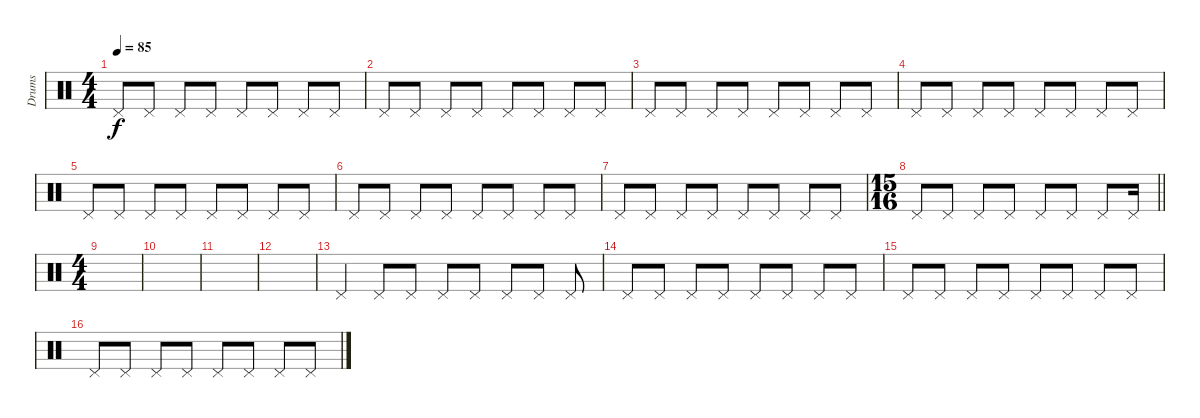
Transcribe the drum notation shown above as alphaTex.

\track ("Drums" "Drums") {solo instrument percussion}
\staff {score}
\articulation defaults
\ts (4 4)
\section ("" "")
\tempo 85
\clef neutral
\ks c "Pedal Hi-Hat (hit)".8{dy f} "Pedal Hi-Hat (hit)".8 "Pedal Hi-Hat (hit)".8 "Pedal Hi-Hat (hit)".8 "Pedal Hi-Hat (hit)".8 "Pedal Hi-Hat (hit)".8 "Pedal Hi-Hat (hit)".8 "Pedal Hi-Hat (hit)".8
|
"Pedal Hi-Hat (hit)".8 "Pedal Hi-Hat (hit)".8 "Pedal Hi-Hat (hit)".8 "Pedal Hi-Hat (hit)".8 "Pedal Hi-Hat (hit)".8 "Pedal Hi-Hat (hit)".8 "Pedal Hi-Hat (hit)".8 "Pedal Hi-Hat (hit)".8 |
"Pedal Hi-Hat (hit)".8 "Pedal Hi-Hat (hit)".8 "Pedal Hi-Hat (hit)".8 "Pedal Hi-Hat (hit)".8 "Pedal Hi-Hat (hit)".8 "Pedal Hi-Hat (hit)".8 "Pedal Hi-Hat (hit)".8 "Pedal Hi-Hat (hit)".8 |
"Pedal Hi-Hat (hit)".8 "Pedal Hi-Hat (hit)".8 "Pedal Hi-Hat (hit)".8 "Pedal Hi-Hat (hit)".8 "Pedal Hi-Hat (hit)".8 "Pedal Hi-Hat (hit)".8 "Pedal Hi-Hat (hit)".8 "Pedal Hi-Hat (hit)".8 |
"Pedal Hi-Hat (hit)".8 "Pedal Hi-Hat (hit)".8 "Pedal Hi-Hat (hit)".8 "Pedal Hi-Hat (hit)".8 "Pedal Hi-Hat (hit)".8 "Pedal Hi-Hat (hit)".8 "Pedal Hi-Hat (hit)".8 "Pedal Hi-Hat (hit)".8 |
"Pedal Hi-Hat (hit)".8 "Pedal Hi-Hat (hit)".8 "Pedal Hi-Hat (hit)".8 "Pedal Hi-Hat (hit)".8 "Pedal Hi-Hat (hit)".8 "Pedal Hi-Hat (hit)".8 "Pedal Hi-Hat (hit)".8 "Pedal Hi-Hat (hit)".8 |
"Pedal Hi-Hat (hit)".8 "Pedal Hi-Hat (hit)".8 "Pedal Hi-Hat (hit)".8 "Pedal Hi-Hat (hit)".8 "Pedal Hi-Hat (hit)".8 "Pedal Hi-Hat (hit)".8 "Pedal Hi-Hat (hit)".8 "Pedal Hi-Hat (hit)".8 |
\ts (15 16)
\barLineRight lightlight "Pedal Hi-Hat (hit)".8 "Pedal Hi-Hat (hit)".8 "Pedal Hi-Hat (hit)".8 "Pedal Hi-Hat (hit)".8 "Pedal Hi-Hat (hit)".8 "Pedal Hi-Hat (hit)".8 "Pedal Hi-Hat (hit)".8 "Pedal Hi-Hat (hit)".16
|
\ts (4 4)
\section ("" "")
|
|
|
|
"Pedal Hi-Hat (hit)".4 "Pedal Hi-Hat (hit)".8 "Pedal Hi-Hat (hit)".8 "Pedal Hi-Hat (hit)".8 "Pedal Hi-Hat (hit)".8 "Pedal Hi-Hat (hit)".8 "Pedal Hi-Hat (hit)".8 "Pedal Hi-Hat (hit)".8 |
"Pedal Hi-Hat (hit)".8 "Pedal Hi-Hat (hit)".8 "Pedal Hi-Hat (hit)".8 "Pedal Hi-Hat (hit)".8 "Pedal Hi-Hat (hit)".8 "Pedal Hi-Hat (hit)".8 "Pedal Hi-Hat (hit)".8 "Pedal Hi-Hat (hit)".8 |
"Pedal Hi-Hat (hit)".8 "Pedal Hi-Hat (hit)".8 "Pedal Hi-Hat (hit)".8 "Pedal Hi-Hat (hit)".8 "Pedal Hi-Hat (hit)".8 "Pedal Hi-Hat (hit)".8 "Pedal Hi-Hat (hit)".8 "Pedal Hi-Hat (hit)".8 |
"Pedal Hi-Hat (hit)".8 "Pedal Hi-Hat (hit)".8 "Pedal Hi-Hat (hit)".8 "Pedal Hi-Hat (hit)".8 "Pedal Hi-Hat (hit)".8 "Pedal Hi-Hat (hit)".8 "Pedal Hi-Hat (hit)".8 "Pedal Hi-Hat (hit)".8
